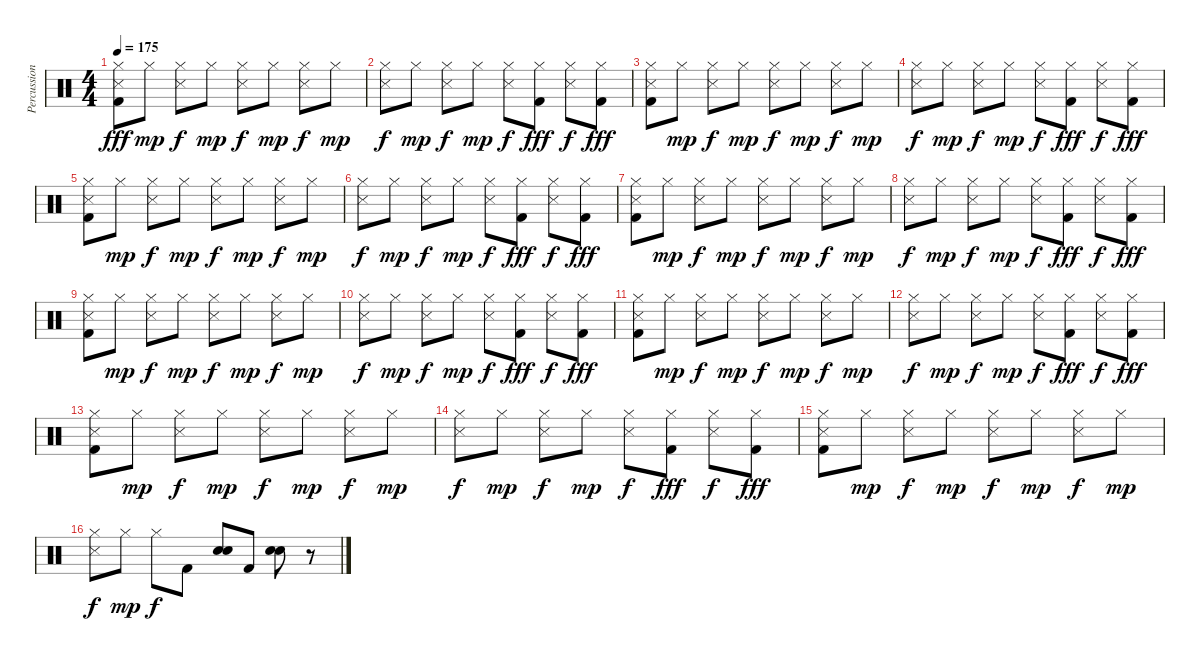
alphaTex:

\track ("Percussions" "Percussion") {instrument percussion}
\staff {score}
\articulation defaults
\ts (4 4)
\tempo 175
\clef neutral
\ks c
("Hi-Hat (closed)" "Snare (side stick) 3" "Kick (hit) 2").8{dy fff} "Hi-Hat (closed)".8{dy mp} ("Hi-Hat (closed)" "Snare (side stick) 3").8{dy f} "Hi-Hat (closed)".8{dy mp} ("Hi-Hat (closed)" "Snare (side stick) 3").8{dy f} "Hi-Hat (closed)".8{dy mp} ("Hi-Hat (closed)" "Snare (side stick) 3").8{dy f} "Hi-Hat (closed)".8{dy mp} |
("Hi-Hat (closed)" "Snare (side stick) 3").8{dy f} "Hi-Hat (closed)".8{dy mp} ("Hi-Hat (closed)" "Snare (side stick) 3").8{dy f} "Hi-Hat (closed)".8{dy mp} ("Hi-Hat (closed)" "Snare (side stick) 3").8{dy f} ("Hi-Hat (closed)" "Kick (hit) 2").8{dy fff} ("Hi-Hat (closed)" "Snare (side stick) 3").8{dy f} ("Hi-Hat (closed)" "Kick (hit) 2").8{dy fff} |
("Hi-Hat (closed)" "Snare (side stick) 3" "Kick (hit) 2").8 "Hi-Hat (closed)".8{dy mp} ("Hi-Hat (closed)" "Snare (side stick) 3").8{dy f} "Hi-Hat (closed)".8{dy mp} ("Hi-Hat (closed)" "Snare (side stick) 3").8{dy f} "Hi-Hat (closed)".8{dy mp} ("Hi-Hat (closed)" "Snare (side stick) 3").8{dy f} "Hi-Hat (closed)".8{dy mp} |
("Hi-Hat (closed)" "Snare (side stick) 3").8{dy f} "Hi-Hat (closed)".8{dy mp} ("Hi-Hat (closed)" "Snare (side stick) 3").8{dy f} "Hi-Hat (closed)".8{dy mp} ("Hi-Hat (closed)" "Snare (side stick) 3").8{dy f} ("Hi-Hat (closed)" "Kick (hit) 2").8{dy fff} ("Hi-Hat (closed)" "Snare (side stick) 3").8{dy f} ("Hi-Hat (closed)" "Kick (hit) 2").8{dy fff} |
("Hi-Hat (closed)" "Snare (side stick) 3" "Kick (hit) 2").8 "Hi-Hat (closed)".8{dy mp} ("Hi-Hat (closed)" "Snare (side stick) 3").8{dy f} "Hi-Hat (closed)".8{dy mp} ("Hi-Hat (closed)" "Snare (side stick) 3").8{dy f} "Hi-Hat (closed)".8{dy mp} ("Hi-Hat (closed)" "Snare (side stick) 3").8{dy f} "Hi-Hat (closed)".8{dy mp} |
("Hi-Hat (closed)" "Snare (side stick) 3").8{dy f} "Hi-Hat (closed)".8{dy mp} ("Hi-Hat (closed)" "Snare (side stick) 3").8{dy f} "Hi-Hat (closed)".8{dy mp} ("Hi-Hat (closed)" "Snare (side stick) 3").8{dy f} ("Hi-Hat (closed)" "Kick (hit) 2").8{dy fff} ("Hi-Hat (closed)" "Snare (side stick) 3").8{dy f} ("Hi-Hat (closed)" "Kick (hit) 2").8{dy fff} |
("Hi-Hat (closed)" "Snare (side stick) 3" "Kick (hit) 2").8 "Hi-Hat (closed)".8{dy mp} ("Hi-Hat (closed)" "Snare (side stick) 3").8{dy f} "Hi-Hat (closed)".8{dy mp} ("Hi-Hat (closed)" "Snare (side stick) 3").8{dy f} "Hi-Hat (closed)".8{dy mp} ("Hi-Hat (closed)" "Snare (side stick) 3").8{dy f} "Hi-Hat (closed)".8{dy mp} |
("Hi-Hat (closed)" "Snare (side stick) 3").8{dy f} "Hi-Hat (closed)".8{dy mp} ("Hi-Hat (closed)" "Snare (side stick) 3").8{dy f} "Hi-Hat (closed)".8{dy mp} ("Hi-Hat (closed)" "Snare (side stick) 3").8{dy f} ("Hi-Hat (closed)" "Kick (hit) 2").8{dy fff} ("Hi-Hat (closed)" "Snare (side stick) 3").8{dy f} ("Hi-Hat (closed)" "Kick (hit) 2").8{dy fff} |
("Hi-Hat (closed)" "Snare (side stick) 3" "Kick (hit) 2").8 "Hi-Hat (closed)".8{dy mp} ("Hi-Hat (closed)" "Snare (side stick) 3").8{dy f} "Hi-Hat (closed)".8{dy mp} ("Hi-Hat (closed)" "Snare (side stick) 3").8{dy f} "Hi-Hat (closed)".8{dy mp} ("Hi-Hat (closed)" "Snare (side stick) 3").8{dy f} "Hi-Hat (closed)".8{dy mp} |
("Hi-Hat (closed)" "Snare (side stick) 3").8{dy f} "Hi-Hat (closed)".8{dy mp} ("Hi-Hat (closed)" "Snare (side stick) 3").8{dy f} "Hi-Hat (closed)".8{dy mp} ("Hi-Hat (closed)" "Snare (side stick) 3").8{dy f} ("Hi-Hat (closed)" "Kick (hit) 2").8{dy fff} ("Hi-Hat (closed)" "Snare (side stick) 3").8{dy f} ("Hi-Hat (closed)" "Kick (hit) 2").8{dy fff} |
("Hi-Hat (closed)" "Snare (side stick) 3" "Kick (hit) 2").8 "Hi-Hat (closed)".8{dy mp} ("Hi-Hat (closed)" "Snare (side stick) 3").8{dy f} "Hi-Hat (closed)".8{dy mp} ("Hi-Hat (closed)" "Snare (side stick) 3").8{dy f} "Hi-Hat (closed)".8{dy mp} ("Hi-Hat (closed)" "Snare (side stick) 3").8{dy f} "Hi-Hat (closed)".8{dy mp} |
("Hi-Hat (closed)" "Snare (side stick) 3").8{dy f} "Hi-Hat (closed)".8{dy mp} ("Hi-Hat (closed)" "Snare (side stick) 3").8{dy f} "Hi-Hat (closed)".8{dy mp} ("Hi-Hat (closed)" "Snare (side stick) 3").8{dy f} ("Hi-Hat (closed)" "Kick (hit) 2").8{dy fff} ("Hi-Hat (closed)" "Snare (side stick) 3").8{dy f} ("Hi-Hat (closed)" "Kick (hit) 2").8{dy fff} |
("Hi-Hat (closed)" "Snare (side stick) 3" "Kick (hit) 2").8 "Hi-Hat (closed)".8{dy mp} ("Hi-Hat (closed)" "Snare (side stick) 3").8{dy f} "Hi-Hat (closed)".8{dy mp} ("Hi-Hat (closed)" "Snare (side stick) 3").8{dy f} "Hi-Hat (closed)".8{dy mp} ("Hi-Hat (closed)" "Snare (side stick) 3").8{dy f} "Hi-Hat (closed)".8{dy mp} |
("Hi-Hat (closed)" "Snare (side stick) 3").8{dy f} "Hi-Hat (closed)".8{dy mp} ("Hi-Hat (closed)" "Snare (side stick) 3").8{dy f} "Hi-Hat (closed)".8{dy mp} ("Hi-Hat (closed)" "Snare (side stick) 3").8{dy f} ("Hi-Hat (closed)" "Kick (hit) 2").8{dy fff} ("Hi-Hat (closed)" "Snare (side stick) 3").8{dy f} ("Hi-Hat (closed)" "Kick (hit) 2").8{dy fff} |
("Hi-Hat (closed)" "Snare (side stick) 3" "Kick (hit) 2").8 "Hi-Hat (closed)".8{dy mp} ("Hi-Hat (closed)" "Snare (side stick) 3").8{dy f} "Hi-Hat (closed)".8{dy mp} ("Hi-Hat (closed)" "Snare (side stick) 3").8{dy f} "Hi-Hat (closed)".8{dy mp} ("Hi-Hat (closed)" "Snare (side stick) 3").8{dy f} "Hi-Hat (closed)".8{dy mp} |
("Hi-Hat (closed)" "Snare (side stick) 3").8{dy f} "Hi-Hat (closed)".8{dy mp} "Hi-Hat (closed)".8{dy f} "Kick (hit) 2".8 ("Snare (hit) 2" "Snare (hit) 2").8 "Kick (hit) 2".8 ("Snare (hit) 2" "Snare (hit) 2").8 r.8
